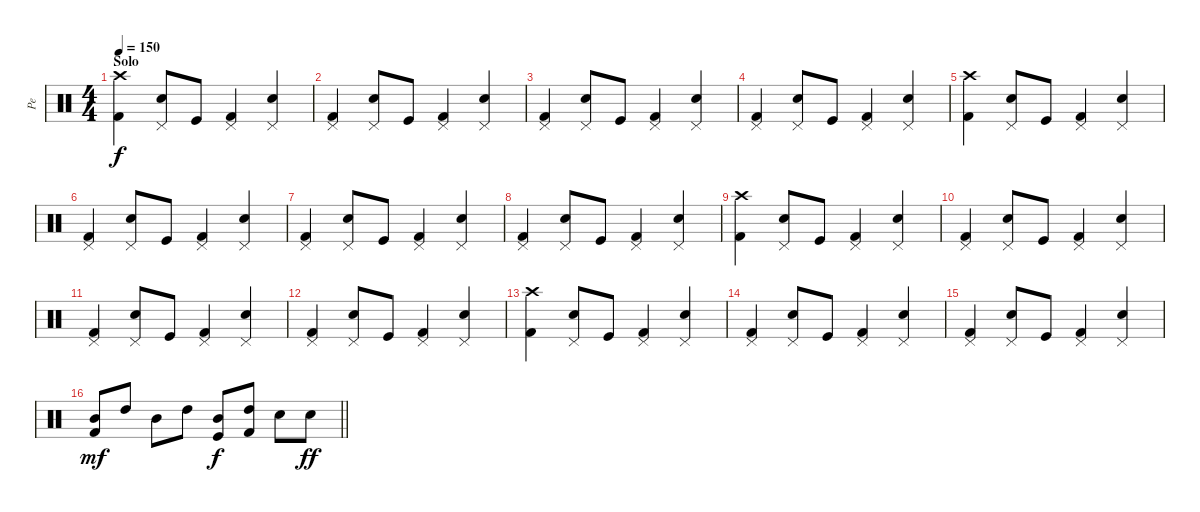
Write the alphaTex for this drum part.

\track ("Pe" "Pe") {instrument percussion}
\staff {score}
\articulation defaults
\ts (4 4)
\section ("" "Solo")
\tempo 150
\clef neutral
\ks c
("Kick (hit) 2" "Crash high (hit)").4{dy f} ("Electric Snare (hit)" "Pedal Hi-Hat (hit)").8 "Kick (hit)".8 ("Kick (hit) 2" "Pedal Hi-Hat (hit)").4 ("Electric Snare (hit)" "Pedal Hi-Hat (hit)").4 |
("Kick (hit) 2" "Pedal Hi-Hat (hit)").4 ("Electric Snare (hit)" "Pedal Hi-Hat (hit)").8 "Kick (hit)".8 ("Kick (hit) 2" "Pedal Hi-Hat (hit)").4 ("Electric Snare (hit)" "Pedal Hi-Hat (hit)").4 |
("Kick (hit) 2" "Pedal Hi-Hat (hit)").4 ("Electric Snare (hit)" "Pedal Hi-Hat (hit)").8 "Kick (hit)".8 ("Kick (hit) 2" "Pedal Hi-Hat (hit)").4 ("Electric Snare (hit)" "Pedal Hi-Hat (hit)").4 |
("Kick (hit) 2" "Pedal Hi-Hat (hit)").4 ("Electric Snare (hit)" "Pedal Hi-Hat (hit)").8 "Kick (hit)".8 ("Kick (hit) 2" "Pedal Hi-Hat (hit)").4 ("Electric Snare (hit)" "Pedal Hi-Hat (hit)").4 |
("Kick (hit) 2" "Crash high (hit)").4 ("Electric Snare (hit)" "Pedal Hi-Hat (hit)").8 "Kick (hit)".8 ("Kick (hit) 2" "Pedal Hi-Hat (hit)").4 ("Electric Snare (hit)" "Pedal Hi-Hat (hit)").4 |
("Kick (hit) 2" "Pedal Hi-Hat (hit)").4 ("Electric Snare (hit)" "Pedal Hi-Hat (hit)").8 "Kick (hit)".8 ("Kick (hit) 2" "Pedal Hi-Hat (hit)").4 ("Electric Snare (hit)" "Pedal Hi-Hat (hit)").4 |
("Kick (hit) 2" "Pedal Hi-Hat (hit)").4 ("Electric Snare (hit)" "Pedal Hi-Hat (hit)").8 "Kick (hit)".8 ("Kick (hit) 2" "Pedal Hi-Hat (hit)").4 ("Electric Snare (hit)" "Pedal Hi-Hat (hit)").4 |
("Kick (hit) 2" "Pedal Hi-Hat (hit)").4 ("Electric Snare (hit)" "Pedal Hi-Hat (hit)").8 "Kick (hit)".8 ("Kick (hit) 2" "Pedal Hi-Hat (hit)").4 ("Electric Snare (hit)" "Pedal Hi-Hat (hit)").4 |
("Kick (hit) 2" "Crash high (hit)").4 ("Electric Snare (hit)" "Pedal Hi-Hat (hit)").8 "Kick (hit)".8 ("Kick (hit) 2" "Pedal Hi-Hat (hit)").4 ("Electric Snare (hit)" "Pedal Hi-Hat (hit)").4 |
("Kick (hit) 2" "Pedal Hi-Hat (hit)").4 ("Electric Snare (hit)" "Pedal Hi-Hat (hit)").8 "Kick (hit)".8 ("Kick (hit) 2" "Pedal Hi-Hat (hit)").4 ("Electric Snare (hit)" "Pedal Hi-Hat (hit)").4 |
("Kick (hit) 2" "Pedal Hi-Hat (hit)").4 ("Electric Snare (hit)" "Pedal Hi-Hat (hit)").8 "Kick (hit)".8 ("Kick (hit) 2" "Pedal Hi-Hat (hit)").4 ("Electric Snare (hit)" "Pedal Hi-Hat (hit)").4 |
("Kick (hit) 2" "Pedal Hi-Hat (hit)").4 ("Electric Snare (hit)" "Pedal Hi-Hat (hit)").8 "Kick (hit)".8 ("Kick (hit) 2" "Pedal Hi-Hat (hit)").4 ("Electric Snare (hit)" "Pedal Hi-Hat (hit)").4 |
("Kick (hit) 2" "Crash high (hit)").4 ("Electric Snare (hit)" "Pedal Hi-Hat (hit)").8 "Kick (hit)".8 ("Kick (hit) 2" "Pedal Hi-Hat (hit)").4 ("Electric Snare (hit)" "Pedal Hi-Hat (hit)").4 |
("Kick (hit) 2" "Pedal Hi-Hat (hit)").4 ("Electric Snare (hit)" "Pedal Hi-Hat (hit)").8 "Kick (hit)".8 ("Kick (hit) 2" "Pedal Hi-Hat (hit)").4 ("Electric Snare (hit)" "Pedal Hi-Hat (hit)").4 |
("Kick (hit) 2" "Pedal Hi-Hat (hit)").4 ("Electric Snare (hit)" "Pedal Hi-Hat (hit)").8 "Kick (hit)".8 ("Kick (hit) 2" "Pedal Hi-Hat (hit)").4 ("Electric Snare (hit)" "Pedal Hi-Hat (hit)").4 |
\barLineRight lightlight
("Kick (hit) 2" "Mid Tom (hit)").8{dy mf} "High Tom (hit)".8 "Mid Tom (hit)".8 "High Tom (hit)".8 ("Kick (hit)" "Mid Tom (hit)").8{dy f} ("Kick (hit) 2" "High Tom (hit)").8 "Electric Snare (hit)".8 "Electric Snare (hit)".8{dy ff}
